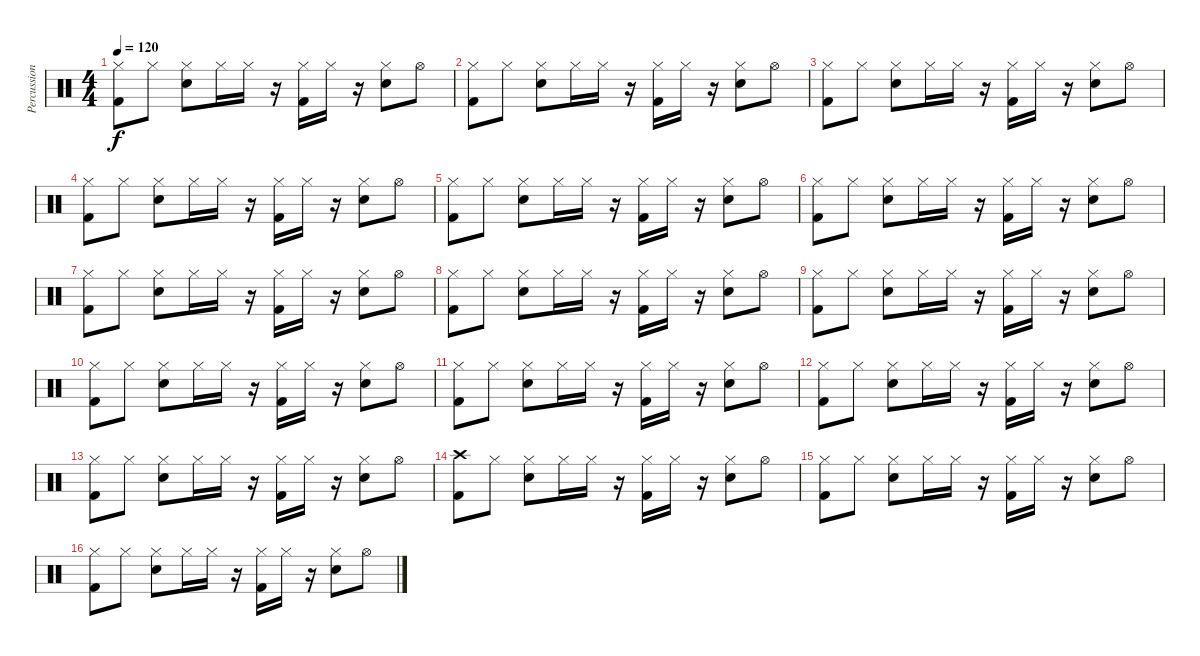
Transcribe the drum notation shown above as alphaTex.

\track ("Percussions" "Percussion") {instrument percussion}
\staff {score}
\articulation defaults
\ts (4 4)
\tempo 120
\clef neutral
\ks c
("Hi-Hat (closed)" "Kick (hit) 2").8{dy f} "Hi-Hat (closed)".8 ("Hi-Hat (closed)" "Snare (hit) 2").8 "Hi-Hat (closed)".16 "Hi-Hat (closed)".16 r.16 ("Hi-Hat (closed)" "Kick (hit) 2").16 "Hi-Hat (closed)".16 r.16 ("Hi-Hat (closed)" "Snare (hit) 2").8 "Hi-Hat (open)".8 |
("Hi-Hat (closed)" "Kick (hit) 2").8 "Hi-Hat (closed)".8 ("Hi-Hat (closed)" "Snare (hit) 2").8 "Hi-Hat (closed)".16 "Hi-Hat (closed)".16 r.16 ("Hi-Hat (closed)" "Kick (hit) 2").16 "Hi-Hat (closed)".16 r.16 ("Hi-Hat (closed)" "Snare (hit) 2").8 "Hi-Hat (open)".8 |
("Hi-Hat (closed)" "Kick (hit) 2").8 "Hi-Hat (closed)".8 ("Hi-Hat (closed)" "Snare (hit) 2").8 "Hi-Hat (closed)".16 "Hi-Hat (closed)".16 r.16 ("Hi-Hat (closed)" "Kick (hit) 2").16 "Hi-Hat (closed)".16 r.16 ("Hi-Hat (closed)" "Snare (hit) 2").8 "Hi-Hat (open)".8 |
("Hi-Hat (closed)" "Kick (hit) 2").8 "Hi-Hat (closed)".8 ("Hi-Hat (closed)" "Snare (hit) 2").8 "Hi-Hat (closed)".16 "Hi-Hat (closed)".16 r.16 ("Hi-Hat (closed)" "Kick (hit) 2").16 "Hi-Hat (closed)".16 r.16 ("Hi-Hat (closed)" "Snare (hit) 2").8 "Hi-Hat (open)".8 |
("Hi-Hat (closed)" "Kick (hit) 2").8 "Hi-Hat (closed)".8 ("Hi-Hat (closed)" "Snare (hit) 2").8 "Hi-Hat (closed)".16 "Hi-Hat (closed)".16 r.16 ("Hi-Hat (closed)" "Kick (hit) 2").16 "Hi-Hat (closed)".16 r.16 ("Hi-Hat (closed)" "Snare (hit) 2").8 "Hi-Hat (open)".8 |
("Hi-Hat (closed)" "Kick (hit) 2").8 "Hi-Hat (closed)".8 ("Hi-Hat (closed)" "Snare (hit) 2").8 "Hi-Hat (closed)".16 "Hi-Hat (closed)".16 r.16 ("Hi-Hat (closed)" "Kick (hit) 2").16 "Hi-Hat (closed)".16 r.16 ("Hi-Hat (closed)" "Snare (hit) 2").8 "Hi-Hat (open)".8 |
("Hi-Hat (closed)" "Kick (hit) 2").8 "Hi-Hat (closed)".8 ("Hi-Hat (closed)" "Snare (hit) 2").8 "Hi-Hat (closed)".16 "Hi-Hat (closed)".16 r.16 ("Hi-Hat (closed)" "Kick (hit) 2").16 "Hi-Hat (closed)".16 r.16 ("Hi-Hat (closed)" "Snare (hit) 2").8 "Hi-Hat (open)".8 |
("Hi-Hat (closed)" "Kick (hit) 2").8 "Hi-Hat (closed)".8 ("Hi-Hat (closed)" "Snare (hit) 2").8 "Hi-Hat (closed)".16 "Hi-Hat (closed)".16 r.16 ("Hi-Hat (closed)" "Kick (hit) 2").16 "Hi-Hat (closed)".16 r.16 ("Hi-Hat (closed)" "Snare (hit) 2").8 "Hi-Hat (open)".8 |
("Hi-Hat (closed)" "Kick (hit) 2").8 "Hi-Hat (closed)".8 ("Hi-Hat (closed)" "Snare (hit) 2").8 "Hi-Hat (closed)".16 "Hi-Hat (closed)".16 r.16 ("Hi-Hat (closed)" "Kick (hit) 2").16 "Hi-Hat (closed)".16 r.16 ("Hi-Hat (closed)" "Snare (hit) 2").8 "Hi-Hat (open)".8 |
("Hi-Hat (closed)" "Kick (hit) 2").8 "Hi-Hat (closed)".8 ("Hi-Hat (closed)" "Snare (hit) 2").8 "Hi-Hat (closed)".16 "Hi-Hat (closed)".16 r.16 ("Hi-Hat (closed)" "Kick (hit) 2").16 "Hi-Hat (closed)".16 r.16 ("Hi-Hat (closed)" "Snare (hit) 2").8 "Hi-Hat (open)".8 |
("Hi-Hat (closed)" "Kick (hit) 2").8 "Hi-Hat (closed)".8 ("Hi-Hat (closed)" "Snare (hit) 2").8 "Hi-Hat (closed)".16 "Hi-Hat (closed)".16 r.16 ("Hi-Hat (closed)" "Kick (hit) 2").16 "Hi-Hat (closed)".16 r.16 ("Hi-Hat (closed)" "Snare (hit) 2").8 "Hi-Hat (open)".8 |
("Hi-Hat (closed)" "Kick (hit) 2").8 "Hi-Hat (closed)".8 ("Hi-Hat (closed)" "Snare (hit) 2").8 "Hi-Hat (closed)".16 "Hi-Hat (closed)".16 r.16 ("Hi-Hat (closed)" "Kick (hit) 2").16 "Hi-Hat (closed)".16 r.16 ("Hi-Hat (closed)" "Snare (hit) 2").8 "Hi-Hat (open)".8 |
("Hi-Hat (closed)" "Kick (hit) 2").8 "Hi-Hat (closed)".8 ("Hi-Hat (closed)" "Snare (hit) 2").8 "Hi-Hat (closed)".16 "Hi-Hat (closed)".16 r.16 ("Hi-Hat (closed)" "Kick (hit) 2").16 "Hi-Hat (closed)".16 r.16 ("Hi-Hat (closed)" "Snare (hit) 2").8 "Hi-Hat (open)".8 |
("Crash high (hit)" "Kick (hit) 2").8 "Hi-Hat (closed)".8 ("Hi-Hat (closed)" "Snare (hit) 2").8 "Hi-Hat (closed)".16 "Hi-Hat (closed)".16 r.16 ("Hi-Hat (closed)" "Kick (hit) 2").16 "Hi-Hat (closed)".16 r.16 ("Hi-Hat (closed)" "Snare (hit) 2").8 "Hi-Hat (open)".8 |
("Hi-Hat (closed)" "Kick (hit) 2").8 "Hi-Hat (closed)".8 ("Hi-Hat (closed)" "Snare (hit) 2").8 "Hi-Hat (closed)".16 "Hi-Hat (closed)".16 r.16 ("Hi-Hat (closed)" "Kick (hit) 2").16 "Hi-Hat (closed)".16 r.16 ("Hi-Hat (closed)" "Snare (hit) 2").8 "Hi-Hat (open)".8 |
("Hi-Hat (closed)" "Kick (hit) 2").8 "Hi-Hat (closed)".8 ("Hi-Hat (closed)" "Snare (hit) 2").8 "Hi-Hat (closed)".16 "Hi-Hat (closed)".16 r.16 ("Hi-Hat (closed)" "Kick (hit) 2").16 "Hi-Hat (closed)".16 r.16 ("Hi-Hat (closed)" "Snare (hit) 2").8 "Hi-Hat (open)".8
